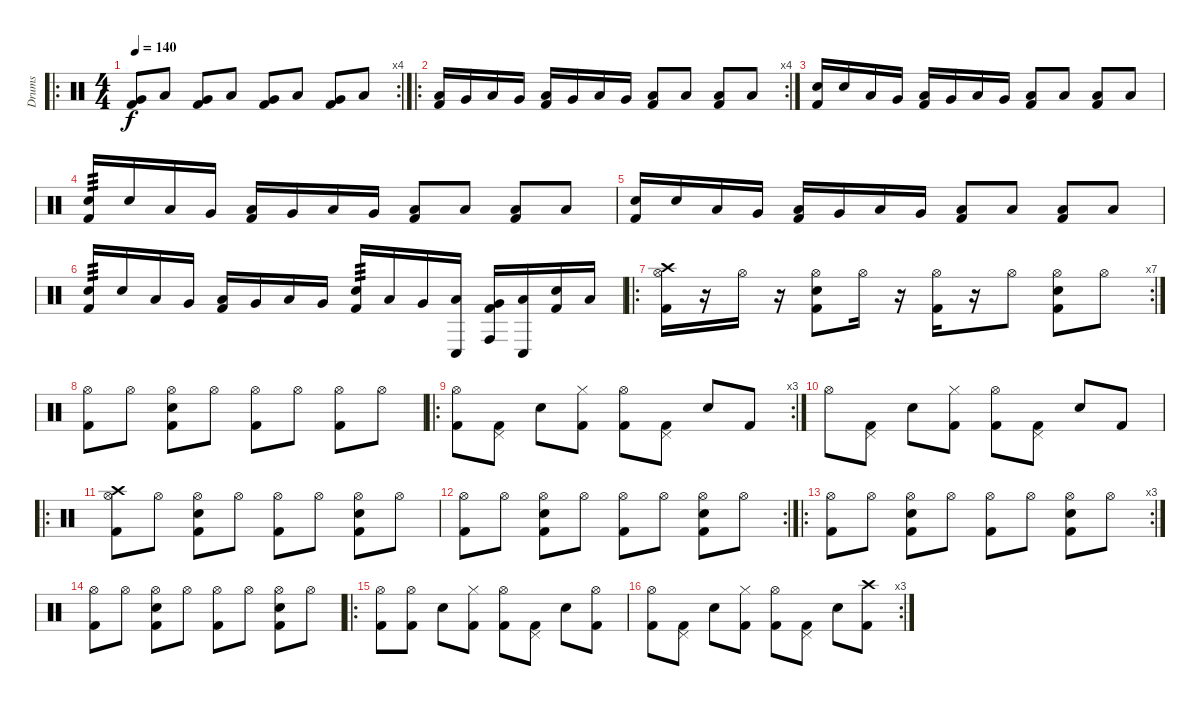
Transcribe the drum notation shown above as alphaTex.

\track ("Drums" "Drums") {instrument percussion}
\staff {score}
\articulation defaults
\ro
\rc 4
\ts (4 4)
\tempo 140
\clef neutral
\ks c
("Very Low Tom (hit)" "Kick (hit) 2").8{dy f} "Low Floor Tom (hit)".8 ("Very Low Tom (hit)" "Kick (hit) 2").8 "Low Floor Tom (hit)".8 ("Very Low Tom (hit)" "Kick (hit) 2").8 "Low Floor Tom (hit)".8 ("Very Low Tom (hit)" "Kick (hit) 2").8 "Low Floor Tom (hit)".8 |
\ro
\rc 4
("Low Floor Tom (hit)" "Kick (hit) 2").16 "Very Low Tom (hit)".16 "Low Floor Tom (hit)".16 "Very Low Tom (hit)".16 ("Low Floor Tom (hit)" "Kick (hit) 2").16 "Very Low Tom (hit)".16 "Low Floor Tom (hit)".16 "Very Low Tom (hit)".16 ("Low Floor Tom (hit)" "Kick (hit) 2").8 "Low Floor Tom (hit)".8 ("Low Floor Tom (hit)" "Kick (hit) 2").8 "Low Floor Tom (hit)".8 |
("Electric Snare (hit)" "Kick (hit) 2").16 "Electric Snare (hit)".16 "Low Floor Tom (hit)".16 "Very Low Tom (hit)".16 ("Low Floor Tom (hit)" "Kick (hit) 2").16 "Very Low Tom (hit)".16 "Low Floor Tom (hit)".16 "Very Low Tom (hit)".16 ("Low Floor Tom (hit)" "Kick (hit) 2").8 "Low Floor Tom (hit)".8 ("Low Floor Tom (hit)" "Kick (hit) 2").8 "Low Floor Tom (hit)".8 |
("Electric Snare (hit)" "Kick (hit) 2").16{tp 3} "Electric Snare (hit)".16 "Low Floor Tom (hit)".16 "Very Low Tom (hit)".16 ("Low Floor Tom (hit)" "Kick (hit) 2").16 "Very Low Tom (hit)".16 "Low Floor Tom (hit)".16 "Very Low Tom (hit)".16 ("Low Floor Tom (hit)" "Kick (hit) 2").8 "Low Floor Tom (hit)".8 ("Low Floor Tom (hit)" "Kick (hit) 2").8 "Low Floor Tom (hit)".8 |
("Electric Snare (hit)" "Kick (hit) 2").16 "Electric Snare (hit)".16 "Low Floor Tom (hit)".16 "Very Low Tom (hit)".16 ("Low Floor Tom (hit)" "Kick (hit) 2").16 "Very Low Tom (hit)".16 "Low Floor Tom (hit)".16 "Very Low Tom (hit)".16 ("Low Floor Tom (hit)" "Kick (hit) 2").8 "Low Floor Tom (hit)".8 ("Low Floor Tom (hit)" "Kick (hit) 2").8 "Low Floor Tom (hit)".8 |
("Electric Snare (hit)" "Kick (hit) 2").16{tp 3} "Electric Snare (hit)".16 "Low Floor Tom (hit)".16 "Very Low Tom (hit)".16 ("Low Floor Tom (hit)" "Kick (hit) 2").16 "Very Low Tom (hit)".16 "Low Floor Tom (hit)".16 "Very Low Tom (hit)".16 ("Electric Snare (hit)" "Kick (hit) 2").16{tp 3} "Low Floor Tom (hit)".16 "Very Low Tom (hit)".16 ("Conga low (hit)" "Low Floor Tom (hit)").16 ("Conga high (hit)" "Very Low Tom (hit)" "Kick (hit) 2").16 ("Conga low (hit)" "Low Floor Tom (hit)").16 ("Electric Snare (hit)" "Kick (hit) 2").16 "Low Floor Tom (hit)".16 |
\ro
\rc 7
("Crash high (hit)" "Hi-Hat (open)" "Kick (hit) 2").16 r.16 "Hi-Hat (open)".16 r.16 ("Electric Snare (hit)" "Hi-Hat (open)" "Kick (hit) 2").8 "Hi-Hat (open)".16 r.16 ("Hi-Hat (open)" "Kick (hit) 2").16 r.16 "Hi-Hat (open)".8 ("Electric Snare (hit)" "Hi-Hat (open)" "Kick (hit) 2").8 "Hi-Hat (open)".8 |
("Hi-Hat (open)" "Kick (hit) 2").8 "Hi-Hat (open)".8 ("Electric Snare (hit)" "Hi-Hat (open)" "Kick (hit) 2").8 "Hi-Hat (open)".8 ("Hi-Hat (open)" "Kick (hit) 2").8 "Hi-Hat (open)".8 ("Hi-Hat (open)" "Kick (hit) 2").8 "Hi-Hat (open)".8 |
\ro
\rc 3
("Hi-Hat (open)" "Kick (hit) 2").8 ("Pedal Hi-Hat (hit)" "Kick (hit) 2").8 "Electric Snare (hit)".8 ("Hi-Hat (closed)" "Kick (hit) 2").8 ("Hi-Hat (open)" "Kick (hit) 2").8 ("Pedal Hi-Hat (hit)" "Kick (hit) 2").8 "Electric Snare (hit)".8 "Kick (hit) 2".8 |
"Hi-Hat (open)".8 ("Pedal Hi-Hat (hit)" "Kick (hit) 2").8 "Electric Snare (hit)".8 ("Hi-Hat (closed)" "Kick (hit) 2").8 ("Hi-Hat (open)" "Kick (hit) 2").8 ("Pedal Hi-Hat (hit)" "Kick (hit) 2").8 "Electric Snare (hit)".8 "Kick (hit) 2".8 |
\ro
("Crash high (hit)" "Hi-Hat (open)" "Kick (hit) 2").8 "Hi-Hat (open)".8 ("Electric Snare (hit)" "Hi-Hat (open)" "Kick (hit) 2").8 "Hi-Hat (open)".8 ("Hi-Hat (open)" "Kick (hit) 2").8 "Hi-Hat (open)".8 ("Electric Snare (hit)" "Hi-Hat (open)" "Kick (hit) 2").8 "Hi-Hat (open)".8 |
\rc 2
("Hi-Hat (open)" "Kick (hit) 2").8 "Hi-Hat (open)".8 ("Electric Snare (hit)" "Hi-Hat (open)" "Kick (hit) 2").8 "Hi-Hat (open)".8 ("Hi-Hat (open)" "Kick (hit) 2").8 "Hi-Hat (open)".8 ("Electric Snare (hit)" "Hi-Hat (open)" "Kick (hit) 2").8 "Hi-Hat (open)".8 |
\ro
\rc 3
("Hi-Hat (open)" "Kick (hit) 2").8 "Hi-Hat (open)".8 ("Electric Snare (hit)" "Hi-Hat (open)" "Kick (hit) 2").8 "Hi-Hat (open)".8 ("Hi-Hat (open)" "Kick (hit) 2").8 "Hi-Hat (open)".8 ("Electric Snare (hit)" "Hi-Hat (open)" "Kick (hit) 2").8 "Hi-Hat (open)".8 |
("Hi-Hat (open)" "Kick (hit) 2").8 "Hi-Hat (open)".8 ("Electric Snare (hit)" "Hi-Hat (open)" "Kick (hit) 2").8 "Hi-Hat (open)".8 ("Hi-Hat (open)" "Kick (hit) 2").8 "Hi-Hat (open)".8 ("Electric Snare (hit)" "Hi-Hat (open)" "Kick (hit) 2").8 "Hi-Hat (open)".8 |
\ro
("Hi-Hat (open)" "Kick (hit) 2").8 ("Hi-Hat (open)" "Kick (hit) 2").8 "Electric Snare (hit)".8 ("Hi-Hat (closed)" "Kick (hit) 2").8 ("Hi-Hat (open)" "Kick (hit) 2").8 ("Pedal Hi-Hat (hit)" "Kick (hit) 2").8 "Electric Snare (hit)".8 ("Hi-Hat (open)" "Kick (hit) 2").8 |
\rc 3
("Hi-Hat (open)" "Kick (hit) 2").8 ("Pedal Hi-Hat (hit)" "Kick (hit) 2").8 "Electric Snare (hit)".8 ("Hi-Hat (closed)" "Kick (hit) 2").8 ("Hi-Hat (open)" "Kick (hit) 2").8 ("Pedal Hi-Hat (hit)" "Kick (hit) 2").8 "Electric Snare (hit)".8 ("Crash high (hit)" "Kick (hit) 2").8
